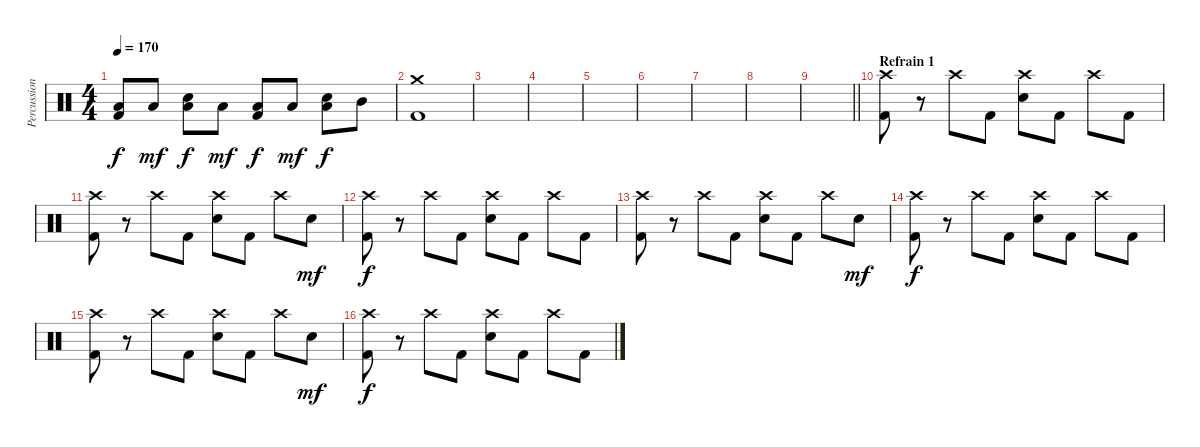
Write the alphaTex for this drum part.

\track ("Percussions" "Percussion") {instrument percussion}
\staff {score}
\articulation defaults
\ts (4 4)
\tempo 170
\clef neutral
\ks c
("Kick (hit) 2" "Low Floor Tom (hit)").8{dy f} "Low Floor Tom (hit)".8{dy mf} ("Electric Snare (hit)" "Low Floor Tom (hit)").8{dy f} "Low Floor Tom (hit)".8{dy mf} ("Kick (hit) 2" "Low Floor Tom (hit)").8{dy f} "Low Floor Tom (hit)".8{dy mf} ("Electric Snare (hit)" "Low Floor Tom (hit)").8{dy f} "Mid Tom (hit)".8 |
("Kick (hit) 2" "Crash medium (hit)").1 |
|
|
|
|
|
|
\barLineRight lightlight
|
\section ("" "Refrain 1")
("Kick (hit) 2" "Crash high (hit)").8 r.8 "Crash high (hit)".8 "Kick (hit) 2".8 ("Electric Snare (hit)" "Crash high (hit)").8 "Kick (hit) 2".8 "Crash high (hit)".8 "Kick (hit) 2".8 |
("Kick (hit) 2" "Crash high (hit)").8 r.8 "Crash high (hit)".8 "Kick (hit) 2".8 ("Electric Snare (hit)" "Crash high (hit)").8 "Kick (hit) 2".8 "Crash high (hit)".8 "Electric Snare (hit)".8{dy mf} |
("Kick (hit) 2" "Crash high (hit)").8{dy f} r.8 "Crash high (hit)".8 "Kick (hit) 2".8 ("Electric Snare (hit)" "Crash high (hit)").8 "Kick (hit) 2".8 "Crash high (hit)".8 "Kick (hit) 2".8 |
("Kick (hit) 2" "Crash high (hit)").8 r.8 "Crash high (hit)".8 "Kick (hit) 2".8 ("Electric Snare (hit)" "Crash high (hit)").8 "Kick (hit) 2".8 "Crash high (hit)".8 "Electric Snare (hit)".8{dy mf} |
("Kick (hit) 2" "Crash high (hit)").8{dy f} r.8 "Crash high (hit)".8 "Kick (hit) 2".8 ("Electric Snare (hit)" "Crash high (hit)").8 "Kick (hit) 2".8 "Crash high (hit)".8 "Kick (hit) 2".8 |
("Kick (hit) 2" "Crash high (hit)").8 r.8 "Crash high (hit)".8 "Kick (hit) 2".8 ("Electric Snare (hit)" "Crash high (hit)").8 "Kick (hit) 2".8 "Crash high (hit)".8 "Electric Snare (hit)".8{dy mf} |
("Kick (hit) 2" "Crash high (hit)").8{dy f} r.8 "Crash high (hit)".8 "Kick (hit) 2".8 ("Electric Snare (hit)" "Crash high (hit)").8 "Kick (hit) 2".8 "Crash high (hit)".8 "Kick (hit) 2".8
